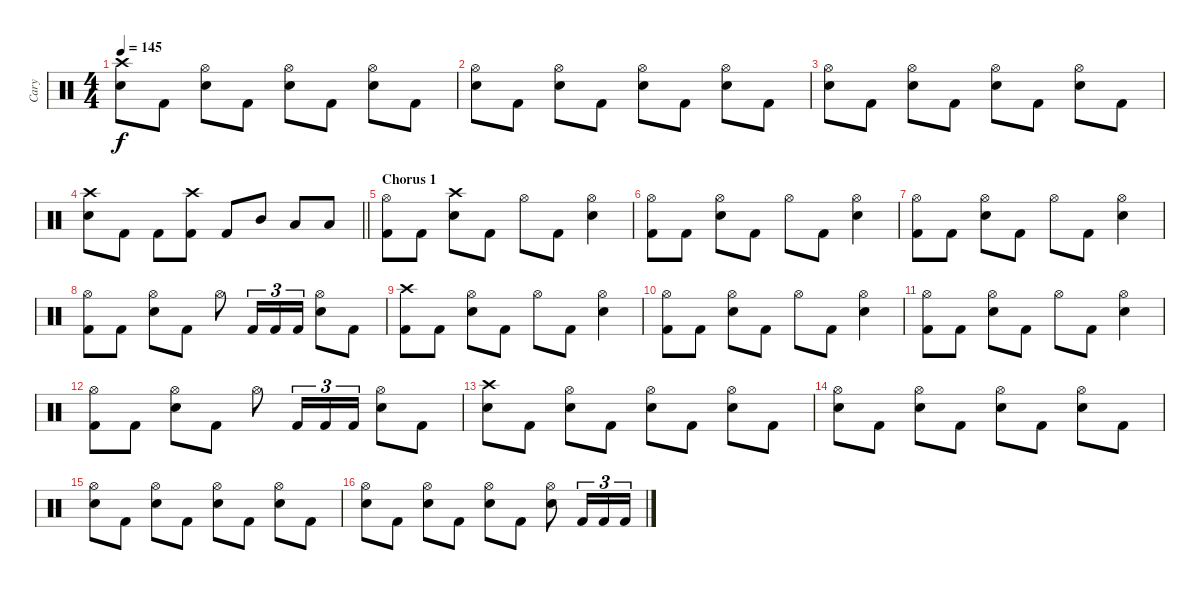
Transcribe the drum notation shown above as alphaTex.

\track ("Cary" "Cary") {instrument percussion}
\staff {score}
\articulation defaults
\ts (4 4)
\tempo 145
\clef neutral
\ks c
("Crash high (hit)" "Electric Snare (hit)").8{dy f} "Kick (hit) 2".8 ("Hi-Hat (open)" "Electric Snare (hit)").8 "Kick (hit) 2".8 ("Hi-Hat (open)" "Electric Snare (hit)").8 "Kick (hit) 2".8 ("Hi-Hat (open)" "Electric Snare (hit)").8 "Kick (hit) 2".8 |
("Hi-Hat (open)" "Electric Snare (hit)").8 "Kick (hit) 2".8 ("Hi-Hat (open)" "Electric Snare (hit)").8 "Kick (hit) 2".8 ("Hi-Hat (open)" "Electric Snare (hit)").8 "Kick (hit) 2".8 ("Hi-Hat (open)" "Electric Snare (hit)").8 "Kick (hit) 2".8 |
("Hi-Hat (open)" "Electric Snare (hit)").8 "Kick (hit) 2".8 ("Hi-Hat (open)" "Electric Snare (hit)").8 "Kick (hit) 2".8 ("Hi-Hat (open)" "Electric Snare (hit)").8 "Kick (hit) 2".8 ("Hi-Hat (open)" "Electric Snare (hit)").8 "Kick (hit) 2".8 |
\barLineRight lightlight
("Crash high (hit)" "Electric Snare (hit)").8 "Kick (hit) 2".8 "Kick (hit) 2".8 ("Crash high (hit)" "Kick (hit) 2").8 "Kick (hit) 2".8 "Mid Tom (hit)".8 "Low Tom (hit)".8 "Low Floor Tom (hit)".8 |
\section ("" "Chorus 1")
("Hi-Hat (open)" "Kick (hit) 2").8 "Kick (hit) 2".8 ("Crash high (hit)" "Electric Snare (hit)").8 "Kick (hit) 2".8 "Hi-Hat (open)".8 "Kick (hit) 2".8 ("Hi-Hat (open)" "Electric Snare (hit)").4 |
("Hi-Hat (open)" "Kick (hit) 2").8 "Kick (hit) 2".8 ("Hi-Hat (open)" "Electric Snare (hit)").8 "Kick (hit) 2".8 "Hi-Hat (open)".8 "Kick (hit) 2".8 ("Hi-Hat (open)" "Electric Snare (hit)").4 |
("Hi-Hat (open)" "Kick (hit) 2").8 "Kick (hit) 2".8 ("Hi-Hat (open)" "Electric Snare (hit)").8 "Kick (hit) 2".8 "Hi-Hat (open)".8 "Kick (hit) 2".8 ("Hi-Hat (open)" "Electric Snare (hit)").4 |
("Hi-Hat (open)" "Kick (hit) 2").8 "Kick (hit) 2".8 ("Hi-Hat (open)" "Electric Snare (hit)").8 "Kick (hit) 2".8 "Hi-Hat (open)".8 "Kick (hit) 2".16{tu (3 2)} "Kick (hit) 2".16{tu (3 2)} "Kick (hit) 2".16{tu (3 2)} ("Hi-Hat (open)" "Electric Snare (hit)").8 "Kick (hit) 2".8 |
("Crash high (hit)" "Kick (hit) 2").8 "Kick (hit) 2".8 ("Hi-Hat (open)" "Electric Snare (hit)").8 "Kick (hit) 2".8 "Hi-Hat (open)".8 "Kick (hit) 2".8 ("Hi-Hat (open)" "Electric Snare (hit)").4 |
("Hi-Hat (open)" "Kick (hit) 2").8 "Kick (hit) 2".8 ("Hi-Hat (open)" "Electric Snare (hit)").8 "Kick (hit) 2".8 "Hi-Hat (open)".8 "Kick (hit) 2".8 ("Hi-Hat (open)" "Electric Snare (hit)").4 |
("Hi-Hat (open)" "Kick (hit) 2").8 "Kick (hit) 2".8 ("Hi-Hat (open)" "Electric Snare (hit)").8 "Kick (hit) 2".8 "Hi-Hat (open)".8 "Kick (hit) 2".8 ("Hi-Hat (open)" "Electric Snare (hit)").4 |
("Hi-Hat (open)" "Kick (hit) 2").8 "Kick (hit) 2".8 ("Hi-Hat (open)" "Electric Snare (hit)").8 "Kick (hit) 2".8 "Hi-Hat (open)".8 "Kick (hit) 2".16{tu (3 2)} "Kick (hit) 2".16{tu (3 2)} "Kick (hit) 2".16{tu (3 2)} ("Hi-Hat (open)" "Electric Snare (hit)").8 "Kick (hit) 2".8 |
("Crash high (hit)" "Electric Snare (hit)").8 "Kick (hit) 2".8 ("Hi-Hat (open)" "Electric Snare (hit)").8 "Kick (hit) 2".8 ("Hi-Hat (open)" "Electric Snare (hit)").8 "Kick (hit) 2".8 ("Hi-Hat (open)" "Electric Snare (hit)").8 "Kick (hit) 2".8 |
("Hi-Hat (open)" "Electric Snare (hit)").8 "Kick (hit) 2".8 ("Hi-Hat (open)" "Electric Snare (hit)").8 "Kick (hit) 2".8 ("Hi-Hat (open)" "Electric Snare (hit)").8 "Kick (hit) 2".8 ("Hi-Hat (open)" "Electric Snare (hit)").8 "Kick (hit) 2".8 |
("Hi-Hat (open)" "Electric Snare (hit)").8 "Kick (hit) 2".8 ("Hi-Hat (open)" "Electric Snare (hit)").8 "Kick (hit) 2".8 ("Hi-Hat (open)" "Electric Snare (hit)").8 "Kick (hit) 2".8 ("Hi-Hat (open)" "Electric Snare (hit)").8 "Kick (hit) 2".8 |
("Hi-Hat (open)" "Electric Snare (hit)").8 "Kick (hit) 2".8 ("Hi-Hat (open)" "Electric Snare (hit)").8 "Kick (hit) 2".8 ("Hi-Hat (open)" "Electric Snare (hit)").8 "Kick (hit) 2".8 ("Hi-Hat (open)" "Electric Snare (hit)").8 "Kick (hit) 2".16{tu (3 2)} "Kick (hit) 2".16{tu (3 2)} "Kick (hit) 2".16{tu (3 2)}
